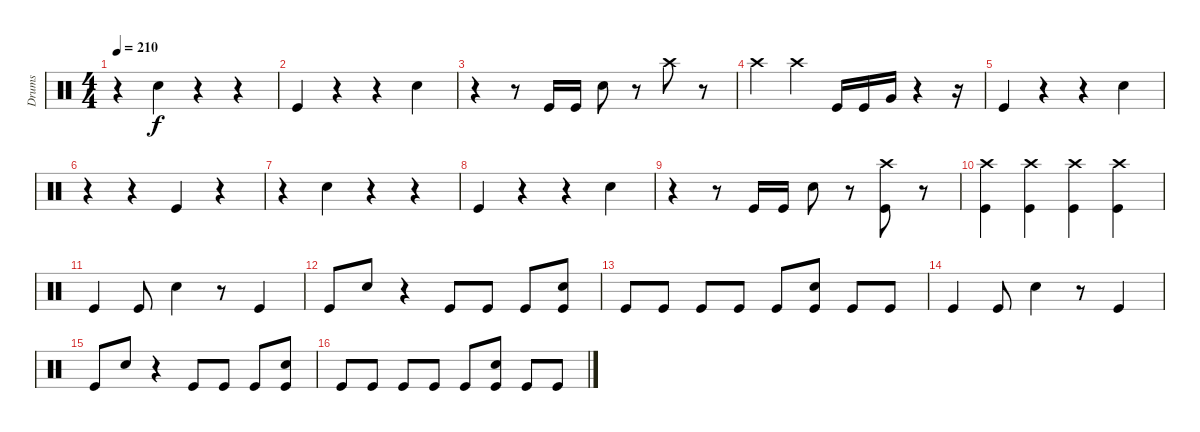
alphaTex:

\track ("Drums" "Drums") {instrument percussion}
\staff {score}
\articulation defaults
\ts (4 4)
\tempo 210
\clef neutral
\ks c
r.4{dy f} "Electric Snare (hit)".4 r.4 r.4 |
"Kick (hit)".4 r.4 r.4 "Electric Snare (hit)".4 |
r.4 r.8 "Kick (hit)".16 "Kick (hit)".16 "Electric Snare (hit)".8 r.8 "Crash high (hit)".8 r.8 |
"Crash high (hit)".4 "Crash high (hit)".4 "Kick (hit)".16 "Kick (hit)".16 "Very Low Tom (hit)".16 r.4 r.16 |
"Kick (hit)".4 r.4 r.4 "Electric Snare (hit)".4 |
r.4 r.4 "Kick (hit)".4 r.4 |
r.4 "Electric Snare (hit)".4 r.4 r.4 |
"Kick (hit)".4 r.4 r.4 "Electric Snare (hit)".4 |
r.4 r.8 "Kick (hit)".16 "Kick (hit)".16 "Electric Snare (hit)".8 r.8 ("Crash high (hit)" "Kick (hit)").8 r.8 |
("Crash high (hit)" "Kick (hit)").4 ("Crash high (hit)" "Kick (hit)").4 ("Crash high (hit)" "Kick (hit)").4 ("Crash high (hit)" "Kick (hit)").4 |
"Kick (hit)".4 "Kick (hit)".8 "Electric Snare (hit)".4 r.8 "Kick (hit)".4 |
"Kick (hit)".8 "Electric Snare (hit)".8 r.4 "Kick (hit)".8 "Kick (hit)".8 "Kick (hit)".8 ("Electric Snare (hit)" "Kick (hit)").8 |
"Kick (hit)".8 "Kick (hit)".8 "Kick (hit)".8 "Kick (hit)".8 "Kick (hit)".8 ("Electric Snare (hit)" "Kick (hit)").8 "Kick (hit)".8 "Kick (hit)".8 |
"Kick (hit)".4 "Kick (hit)".8 "Electric Snare (hit)".4 r.8 "Kick (hit)".4 |
"Kick (hit)".8 "Electric Snare (hit)".8 r.4 "Kick (hit)".8 "Kick (hit)".8 "Kick (hit)".8 ("Electric Snare (hit)" "Kick (hit)").8 |
"Kick (hit)".8 "Kick (hit)".8 "Kick (hit)".8 "Kick (hit)".8 "Kick (hit)".8 ("Electric Snare (hit)" "Kick (hit)").8 "Kick (hit)".8 "Kick (hit)".8
